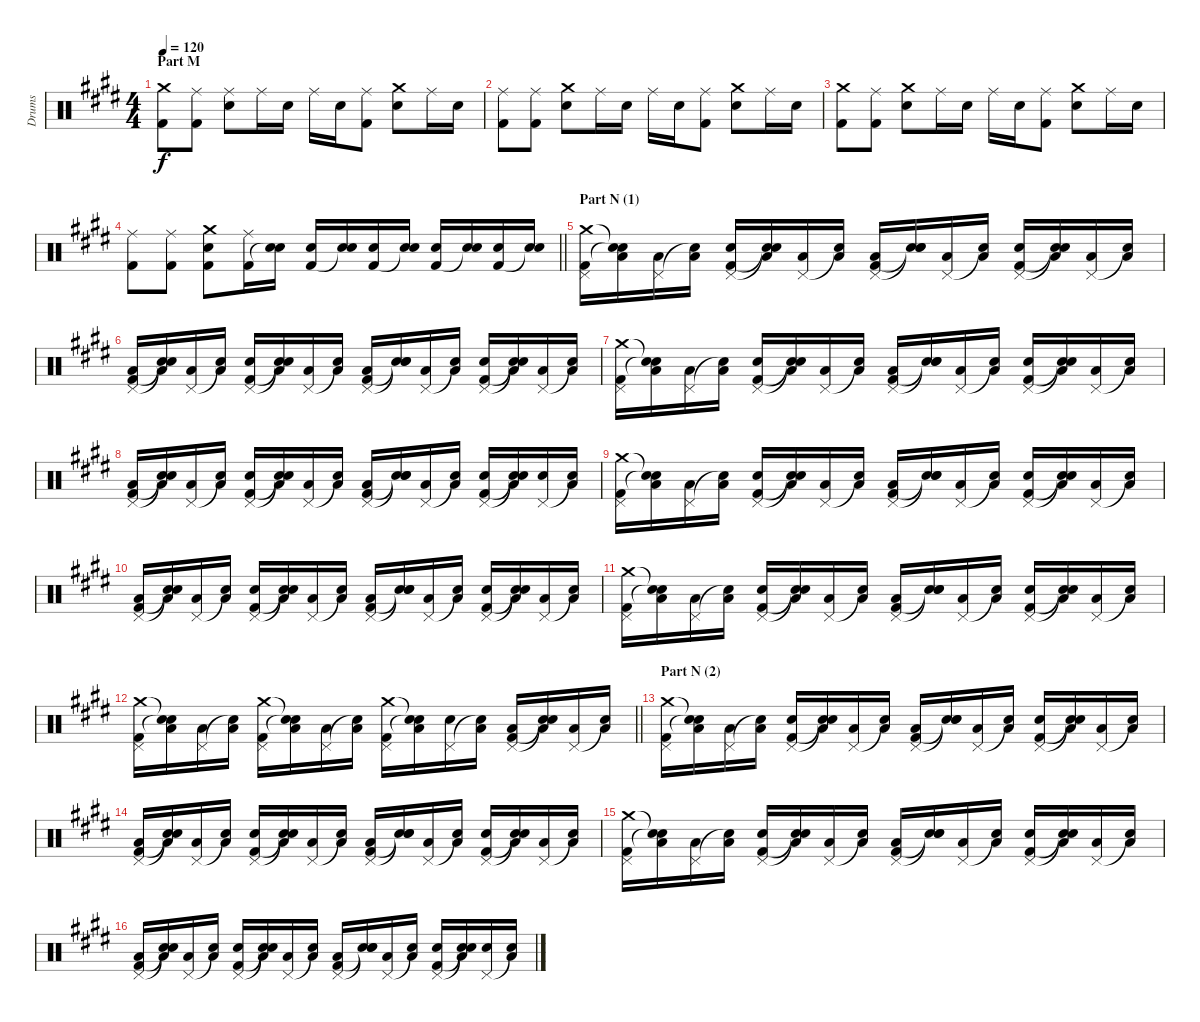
\track ("Drums" "Drums") {instrument percussion}
\staff {score}
\articulation defaults
\ts (4 4)
\section ("" "Part M")
\tempo 120
\clef neutral
\ks e
("Crash medium (hit)" "Kick (hit) 2").8{dy f} ("Ride (middle)" "Kick (hit) 2").8 ("Ride (middle)" "Electric Snare (hit)").8 "Ride (middle)".16 "Electric Snare (hit)".16 "Ride (middle)".16 "Electric Snare (hit)".16 ("Ride (middle)" "Kick (hit) 2").8 ("Crash medium (hit)" "Electric Snare (hit)").8 "Ride (middle)".16 "Electric Snare (hit)".16 |
("Ride (middle)" "Kick (hit) 2").8 ("Ride (middle)" "Kick (hit) 2").8 ("Crash medium (hit)" "Electric Snare (hit)").8 "Ride (middle)".16 "Electric Snare (hit)".16 "Ride (middle)".16 "Electric Snare (hit)".16 ("Ride (middle)" "Kick (hit) 2").8 ("Crash medium (hit)" "Electric Snare (hit)").8 "Ride (middle)".16 "Electric Snare (hit)".16 |
("Crash medium (hit)" "Kick (hit) 2").8 ("Ride (middle)" "Kick (hit) 2").8 ("Crash medium (hit)" "Electric Snare (hit)").8 "Ride (middle)".16 "Electric Snare (hit)".16 "Ride (middle)".16 "Electric Snare (hit)".16 ("Ride (middle)" "Kick (hit) 2").8 ("Crash medium (hit)" "Electric Snare (hit)").8 "Ride (middle)".16 "Electric Snare (hit)".16 |
\barLineRight lightlight
("Ride (middle)" "Kick (hit) 2").8 ("Ride (middle)" "Kick (hit) 2").8 ("Crash medium (hit)" "Electric Snare (hit)" "Kick (hit) 2").8 ("Ride (middle)" "Kick (hit) 2").16 ("Electric Snare (hit)" "Snare (hit)"{t}).16 ("Electric Snare (hit)" "Kick (hit) 2").16 ("Electric Snare (hit)" "Snare (hit)"{t}).16 ("Electric Snare (hit)" "Kick (hit) 2").16 ("Electric Snare (hit)" "Snare (hit)"{t}).16 ("Electric Snare (hit)" "Kick (hit) 2").16 ("Electric Snare (hit)" "Snare (hit)"{t}).16 ("Electric Snare (hit)" "Kick (hit) 2").16 ("Electric Snare (hit)" "Snare (hit)"{t}).16 |
\section ("" "Part N (1)")
("Crash medium (hit)" "Pedal Hi-Hat (hit)" "Kick (hit) 2").16 ("Snare (hit)"{t} "Low Floor Tom (hit)" "Snare (hit)"{t}).16 ("Pedal Hi-Hat (hit)" "Low Floor Tom (hit)").16 ("Snare (hit)"{t} "Low Floor Tom (hit)").16 ("Pedal Hi-Hat (hit)" "Electric Snare (hit)" "Kick (hit) 2").16 ("Snare (hit)"{t} "Low Floor Tom (hit)" "Snare (hit)"{t}).16 ("Pedal Hi-Hat (hit)" "Low Floor Tom (hit)").16 ("Snare (hit)"{t} "Low Floor Tom (hit)").16 ("Pedal Hi-Hat (hit)" "Low Floor Tom (hit)" "Kick (hit) 2").16 ("Snare (hit)"{t} "Electric Snare (hit)" "Snare (hit)"{t}).16 ("Pedal Hi-Hat (hit)" "Low Floor Tom (hit)").16 ("Snare (hit)"{t} "Low Floor Tom (hit)").16 ("Pedal Hi-Hat (hit)" "Electric Snare (hit)" "Kick (hit) 2").16 ("Snare (hit)"{t} "Low Floor Tom (hit)" "Snare (hit)"{t}).16 ("Pedal Hi-Hat (hit)" "Low Floor Tom (hit)").16 ("Snare (hit)"{t} "Low Floor Tom (hit)").16 |
("Pedal Hi-Hat (hit)" "Low Floor Tom (hit)" "Kick (hit) 2").16 ("Snare (hit)"{t} "Low Floor Tom (hit)" "Snare (hit)"{t}).16 ("Pedal Hi-Hat (hit)" "Low Floor Tom (hit)").16 ("Snare (hit)"{t} "Low Floor Tom (hit)").16 ("Pedal Hi-Hat (hit)" "Electric Snare (hit)" "Kick (hit) 2").16 ("Snare (hit)"{t} "Low Floor Tom (hit)" "Snare (hit)"{t}).16 ("Pedal Hi-Hat (hit)" "Low Floor Tom (hit)").16 ("Snare (hit)"{t} "Low Floor Tom (hit)").16 ("Pedal Hi-Hat (hit)" "Low Floor Tom (hit)" "Kick (hit) 2").16 ("Snare (hit)"{t} "Electric Snare (hit)" "Snare (hit)"{t}).16 ("Pedal Hi-Hat (hit)" "Low Floor Tom (hit)").16 ("Snare (hit)"{t} "Low Floor Tom (hit)").16 ("Pedal Hi-Hat (hit)" "Electric Snare (hit)" "Kick (hit) 2").16 ("Snare (hit)"{t} "Low Floor Tom (hit)" "Snare (hit)"{t}).16 ("Pedal Hi-Hat (hit)" "Low Floor Tom (hit)").16 ("Snare (hit)"{t} "Low Floor Tom (hit)").16 |
("Crash medium (hit)" "Pedal Hi-Hat (hit)" "Kick (hit) 2").16 ("Snare (hit)"{t} "Low Floor Tom (hit)" "Snare (hit)"{t}).16 ("Pedal Hi-Hat (hit)" "Low Floor Tom (hit)").16 ("Snare (hit)"{t} "Low Floor Tom (hit)").16 ("Pedal Hi-Hat (hit)" "Electric Snare (hit)" "Kick (hit) 2").16 ("Snare (hit)"{t} "Low Floor Tom (hit)" "Snare (hit)"{t}).16 ("Pedal Hi-Hat (hit)" "Low Floor Tom (hit)").16 ("Snare (hit)"{t} "Low Floor Tom (hit)").16 ("Pedal Hi-Hat (hit)" "Low Floor Tom (hit)" "Kick (hit) 2").16 ("Snare (hit)"{t} "Electric Snare (hit)" "Snare (hit)"{t}).16 ("Pedal Hi-Hat (hit)" "Low Floor Tom (hit)").16 ("Snare (hit)"{t} "Low Floor Tom (hit)").16 ("Pedal Hi-Hat (hit)" "Electric Snare (hit)" "Kick (hit) 2").16 ("Snare (hit)"{t} "Low Floor Tom (hit)" "Snare (hit)"{t}).16 ("Pedal Hi-Hat (hit)" "Low Floor Tom (hit)").16 ("Snare (hit)"{t} "Low Floor Tom (hit)").16 |
("Pedal Hi-Hat (hit)" "Low Floor Tom (hit)" "Kick (hit) 2").16 ("Snare (hit)"{t} "Low Floor Tom (hit)" "Snare (hit)"{t}).16 ("Pedal Hi-Hat (hit)" "Low Floor Tom (hit)").16 ("Snare (hit)"{t} "Low Floor Tom (hit)").16 ("Pedal Hi-Hat (hit)" "Electric Snare (hit)" "Kick (hit) 2").16 ("Snare (hit)"{t} "Low Floor Tom (hit)" "Snare (hit)"{t}).16 ("Pedal Hi-Hat (hit)" "Low Floor Tom (hit)").16 ("Snare (hit)"{t} "Low Floor Tom (hit)").16 ("Pedal Hi-Hat (hit)" "Low Floor Tom (hit)" "Kick (hit) 2").16 ("Snare (hit)"{t} "Electric Snare (hit)" "Snare (hit)"{t}).16 ("Pedal Hi-Hat (hit)" "Low Floor Tom (hit)").16 ("Snare (hit)"{t} "Low Floor Tom (hit)").16 ("Pedal Hi-Hat (hit)" "Electric Snare (hit)" "Kick (hit) 2").16 ("Snare (hit)"{t} "Low Floor Tom (hit)" "Snare (hit)"{t}).16 ("Pedal Hi-Hat (hit)" "Electric Snare (hit)").16 ("Snare (hit)"{t} "Low Floor Tom (hit)").16 |
("Crash medium (hit)" "Pedal Hi-Hat (hit)" "Kick (hit) 2").16 ("Snare (hit)"{t} "Low Floor Tom (hit)" "Snare (hit)"{t}).16 ("Pedal Hi-Hat (hit)" "Low Floor Tom (hit)").16 ("Snare (hit)"{t} "Low Floor Tom (hit)").16 ("Pedal Hi-Hat (hit)" "Electric Snare (hit)" "Kick (hit) 2").16 ("Snare (hit)"{t} "Low Floor Tom (hit)" "Snare (hit)"{t}).16 ("Pedal Hi-Hat (hit)" "Low Floor Tom (hit)").16 ("Snare (hit)"{t} "Low Floor Tom (hit)").16 ("Pedal Hi-Hat (hit)" "Low Floor Tom (hit)" "Kick (hit) 2").16 ("Snare (hit)"{t} "Electric Snare (hit)" "Snare (hit)"{t}).16 ("Pedal Hi-Hat (hit)" "Low Floor Tom (hit)").16 ("Snare (hit)"{t} "Low Floor Tom (hit)").16 ("Pedal Hi-Hat (hit)" "Electric Snare (hit)" "Kick (hit) 2").16 ("Snare (hit)"{t} "Low Floor Tom (hit)" "Snare (hit)"{t}).16 ("Pedal Hi-Hat (hit)" "Low Floor Tom (hit)").16 ("Snare (hit)"{t} "Low Floor Tom (hit)").16 |
("Pedal Hi-Hat (hit)" "Low Floor Tom (hit)" "Kick (hit) 2").16 ("Snare (hit)"{t} "Low Floor Tom (hit)" "Snare (hit)"{t}).16 ("Pedal Hi-Hat (hit)" "Low Floor Tom (hit)").16 ("Snare (hit)"{t} "Low Floor Tom (hit)").16 ("Pedal Hi-Hat (hit)" "Electric Snare (hit)" "Kick (hit) 2").16 ("Snare (hit)"{t} "Low Floor Tom (hit)" "Snare (hit)"{t}).16 ("Pedal Hi-Hat (hit)" "Low Floor Tom (hit)").16 ("Snare (hit)"{t} "Low Floor Tom (hit)").16 ("Pedal Hi-Hat (hit)" "Low Floor Tom (hit)" "Kick (hit) 2").16 ("Snare (hit)"{t} "Electric Snare (hit)" "Snare (hit)"{t}).16 ("Pedal Hi-Hat (hit)" "Low Floor Tom (hit)").16 ("Snare (hit)"{t} "Low Floor Tom (hit)").16 ("Pedal Hi-Hat (hit)" "Electric Snare (hit)" "Kick (hit) 2").16 ("Snare (hit)"{t} "Low Floor Tom (hit)" "Snare (hit)"{t}).16 ("Pedal Hi-Hat (hit)" "Low Floor Tom (hit)").16 ("Snare (hit)"{t} "Low Floor Tom (hit)").16 |
("Crash medium (hit)" "Pedal Hi-Hat (hit)" "Kick (hit) 2").16 ("Snare (hit)"{t} "Low Floor Tom (hit)" "Snare (hit)"{t}).16 ("Pedal Hi-Hat (hit)" "Low Floor Tom (hit)").16 ("Snare (hit)"{t} "Low Floor Tom (hit)").16 ("Pedal Hi-Hat (hit)" "Electric Snare (hit)" "Kick (hit) 2").16 ("Snare (hit)"{t} "Low Floor Tom (hit)" "Snare (hit)"{t}).16 ("Pedal Hi-Hat (hit)" "Low Floor Tom (hit)").16 ("Snare (hit)"{t} "Low Floor Tom (hit)").16 ("Pedal Hi-Hat (hit)" "Low Floor Tom (hit)" "Kick (hit) 2").16 ("Snare (hit)"{t} "Electric Snare (hit)" "Snare (hit)"{t}).16 ("Pedal Hi-Hat (hit)" "Low Floor Tom (hit)").16 ("Snare (hit)"{t} "Low Floor Tom (hit)").16 ("Pedal Hi-Hat (hit)" "Electric Snare (hit)" "Kick (hit) 2").16 ("Snare (hit)"{t} "Low Floor Tom (hit)" "Snare (hit)"{t}).16 ("Pedal Hi-Hat (hit)" "Low Floor Tom (hit)").16 ("Snare (hit)"{t} "Low Floor Tom (hit)").16 |
\barLineRight lightlight
("Crash medium (hit)" "Pedal Hi-Hat (hit)" "Kick (hit) 2").16 ("Snare (hit)"{t} "Low Floor Tom (hit)" "Snare (hit)"{t}).16 ("Pedal Hi-Hat (hit)" "Low Floor Tom (hit)").16 ("Snare (hit)"{t} "Low Floor Tom (hit)").16 ("Crash medium (hit)" "Pedal Hi-Hat (hit)" "Kick (hit) 2").16 ("Snare (hit)"{t} "Low Floor Tom (hit)" "Snare (hit)"{t}).16 ("Pedal Hi-Hat (hit)" "Low Floor Tom (hit)").16 ("Snare (hit)"{t} "Low Floor Tom (hit)").16 ("Crash medium (hit)" "Pedal Hi-Hat (hit)" "Kick (hit) 2").16 ("Snare (hit)"{t} "Low Floor Tom (hit)" "Snare (hit)"{t}).16 ("Pedal Hi-Hat (hit)" "Electric Snare (hit)").16 ("Snare (hit)"{t} "Low Floor Tom (hit)").16 ("Pedal Hi-Hat (hit)" "Low Floor Tom (hit)" "Kick (hit) 2").16 ("Snare (hit)"{t} "Low Floor Tom (hit)" "Snare (hit)"{t}).16 ("Pedal Hi-Hat (hit)" "Low Floor Tom (hit)").16 ("Snare (hit)"{t} "Low Floor Tom (hit)").16 |
\section ("" "Part N (2)")
("Crash medium (hit)" "Pedal Hi-Hat (hit)" "Kick (hit) 2").16 ("Snare (hit)"{t} "Low Floor Tom (hit)" "Snare (hit)"{t}).16 ("Pedal Hi-Hat (hit)" "Low Floor Tom (hit)").16 ("Snare (hit)"{t} "Low Floor Tom (hit)").16 ("Pedal Hi-Hat (hit)" "Electric Snare (hit)" "Kick (hit) 2").16 ("Snare (hit)"{t} "Low Floor Tom (hit)" "Snare (hit)"{t}).16 ("Pedal Hi-Hat (hit)" "Low Floor Tom (hit)").16 ("Snare (hit)"{t} "Low Floor Tom (hit)").16 ("Pedal Hi-Hat (hit)" "Low Floor Tom (hit)" "Kick (hit) 2").16 ("Snare (hit)"{t} "Electric Snare (hit)" "Snare (hit)"{t}).16 ("Pedal Hi-Hat (hit)" "Low Floor Tom (hit)").16 ("Snare (hit)"{t} "Low Floor Tom (hit)").16 ("Pedal Hi-Hat (hit)" "Electric Snare (hit)" "Kick (hit) 2").16 ("Snare (hit)"{t} "Low Floor Tom (hit)" "Snare (hit)"{t}).16 ("Pedal Hi-Hat (hit)" "Low Floor Tom (hit)").16 ("Snare (hit)"{t} "Low Floor Tom (hit)").16 |
("Pedal Hi-Hat (hit)" "Low Floor Tom (hit)" "Kick (hit) 2").16 ("Snare (hit)"{t} "Low Floor Tom (hit)" "Snare (hit)"{t}).16 ("Pedal Hi-Hat (hit)" "Low Floor Tom (hit)").16 ("Snare (hit)"{t} "Low Floor Tom (hit)").16 ("Pedal Hi-Hat (hit)" "Electric Snare (hit)" "Kick (hit) 2").16 ("Snare (hit)"{t} "Low Floor Tom (hit)" "Snare (hit)"{t}).16 ("Pedal Hi-Hat (hit)" "Low Floor Tom (hit)").16 ("Snare (hit)"{t} "Low Floor Tom (hit)").16 ("Pedal Hi-Hat (hit)" "Low Floor Tom (hit)" "Kick (hit) 2").16 ("Snare (hit)"{t} "Electric Snare (hit)" "Snare (hit)"{t}).16 ("Pedal Hi-Hat (hit)" "Low Floor Tom (hit)").16 ("Snare (hit)"{t} "Low Floor Tom (hit)").16 ("Pedal Hi-Hat (hit)" "Electric Snare (hit)" "Kick (hit) 2").16 ("Snare (hit)"{t} "Low Floor Tom (hit)" "Snare (hit)"{t}).16 ("Pedal Hi-Hat (hit)" "Low Floor Tom (hit)").16 ("Snare (hit)"{t} "Low Floor Tom (hit)").16 |
("Crash medium (hit)" "Pedal Hi-Hat (hit)" "Kick (hit) 2").16 ("Snare (hit)"{t} "Low Floor Tom (hit)" "Snare (hit)"{t}).16 ("Pedal Hi-Hat (hit)" "Low Floor Tom (hit)").16 ("Snare (hit)"{t} "Low Floor Tom (hit)").16 ("Pedal Hi-Hat (hit)" "Electric Snare (hit)" "Kick (hit) 2").16 ("Snare (hit)"{t} "Low Floor Tom (hit)" "Snare (hit)"{t}).16 ("Pedal Hi-Hat (hit)" "Low Floor Tom (hit)").16 ("Snare (hit)"{t} "Low Floor Tom (hit)").16 ("Pedal Hi-Hat (hit)" "Low Floor Tom (hit)" "Kick (hit) 2").16 ("Snare (hit)"{t} "Electric Snare (hit)" "Snare (hit)"{t}).16 ("Pedal Hi-Hat (hit)" "Low Floor Tom (hit)").16 ("Snare (hit)"{t} "Low Floor Tom (hit)").16 ("Pedal Hi-Hat (hit)" "Electric Snare (hit)" "Kick (hit) 2").16 ("Snare (hit)"{t} "Low Floor Tom (hit)" "Snare (hit)"{t}).16 ("Pedal Hi-Hat (hit)" "Low Floor Tom (hit)").16 ("Snare (hit)"{t} "Low Floor Tom (hit)").16 |
("Pedal Hi-Hat (hit)" "Low Floor Tom (hit)" "Kick (hit) 2").16 ("Snare (hit)"{t} "Low Floor Tom (hit)" "Snare (hit)"{t}).16 ("Pedal Hi-Hat (hit)" "Low Floor Tom (hit)").16 ("Snare (hit)"{t} "Low Floor Tom (hit)").16 ("Pedal Hi-Hat (hit)" "Electric Snare (hit)" "Kick (hit) 2").16 ("Snare (hit)"{t} "Low Floor Tom (hit)" "Snare (hit)"{t}).16 ("Pedal Hi-Hat (hit)" "Low Floor Tom (hit)").16 ("Snare (hit)"{t} "Low Floor Tom (hit)").16 ("Pedal Hi-Hat (hit)" "Low Floor Tom (hit)" "Kick (hit) 2").16 ("Snare (hit)"{t} "Electric Snare (hit)" "Snare (hit)"{t}).16 ("Pedal Hi-Hat (hit)" "Low Floor Tom (hit)").16 ("Snare (hit)"{t} "Low Floor Tom (hit)").16 ("Pedal Hi-Hat (hit)" "Electric Snare (hit)" "Kick (hit) 2").16 ("Snare (hit)"{t} "Low Floor Tom (hit)" "Snare (hit)"{t}).16 ("Pedal Hi-Hat (hit)" "Electric Snare (hit)").16 ("Snare (hit)"{t} "Low Floor Tom (hit)").16
